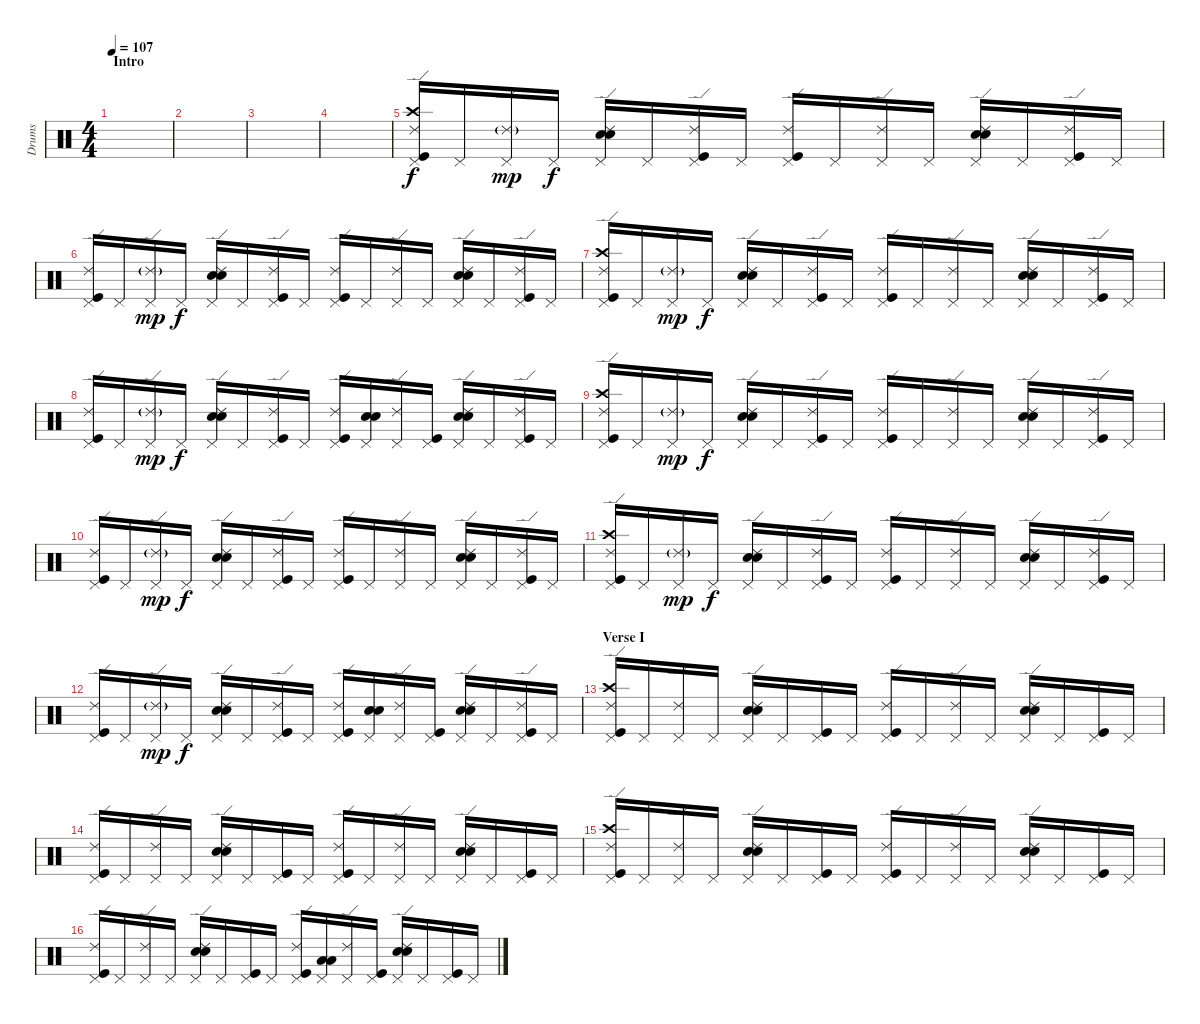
\track ("Drums" "Drums") {instrument percussion}
\staff {score}
\articulation defaults
\ts (4 4)
\section ("" "Intro")
\tempo 107
\clef neutral
\ks c
|
|
|
|
("Pedal Hi-Hat (hit)" "Crash high (hit)" "Ride (edge) 2" "Kick (hit)").16 "Pedal Hi-Hat (hit)".16 ("Pedal Hi-Hat (hit)" "Ride (edge) 2"{g}).16{dy mp} "Pedal Hi-Hat (hit)".16{dy f} ("Pedal Hi-Hat (hit)" "Ride (edge) 2" "Electric Snare (hit)" "Snare (hit) 2").16 "Pedal Hi-Hat (hit)".16 ("Pedal Hi-Hat (hit)" "Ride (edge) 2" "Kick (hit)").16 "Pedal Hi-Hat (hit)".16 ("Pedal Hi-Hat (hit)" "Ride (edge) 2" "Kick (hit)").16 "Pedal Hi-Hat (hit)".16 ("Pedal Hi-Hat (hit)" "Ride (edge) 2").16 "Pedal Hi-Hat (hit)".16 ("Pedal Hi-Hat (hit)" "Ride (edge) 2" "Electric Snare (hit)" "Snare (hit) 2").16 "Pedal Hi-Hat (hit)".16 ("Pedal Hi-Hat (hit)" "Ride (edge) 2" "Kick (hit)").16 "Pedal Hi-Hat (hit)".16 |
("Pedal Hi-Hat (hit)" "Ride (edge) 2" "Kick (hit)").16 "Pedal Hi-Hat (hit)".16 ("Pedal Hi-Hat (hit)" "Ride (edge) 2"{g}).16{dy mp} "Pedal Hi-Hat (hit)".16{dy f} ("Pedal Hi-Hat (hit)" "Ride (edge) 2" "Electric Snare (hit)" "Snare (hit) 2").16 "Pedal Hi-Hat (hit)".16 ("Pedal Hi-Hat (hit)" "Ride (edge) 2" "Kick (hit)").16 "Pedal Hi-Hat (hit)".16 ("Pedal Hi-Hat (hit)" "Ride (edge) 2" "Kick (hit)").16 "Pedal Hi-Hat (hit)".16 ("Pedal Hi-Hat (hit)" "Ride (edge) 2").16 "Pedal Hi-Hat (hit)".16 ("Pedal Hi-Hat (hit)" "Ride (edge) 2" "Electric Snare (hit)" "Snare (hit) 2").16 "Pedal Hi-Hat (hit)".16 ("Pedal Hi-Hat (hit)" "Ride (edge) 2" "Kick (hit)").16 "Pedal Hi-Hat (hit)".16 |
("Pedal Hi-Hat (hit)" "Crash high (hit)" "Ride (edge) 2" "Kick (hit)").16 "Pedal Hi-Hat (hit)".16 ("Pedal Hi-Hat (hit)" "Ride (edge) 2"{g}).16{dy mp} "Pedal Hi-Hat (hit)".16{dy f} ("Pedal Hi-Hat (hit)" "Ride (edge) 2" "Electric Snare (hit)" "Snare (hit) 2").16 "Pedal Hi-Hat (hit)".16 ("Pedal Hi-Hat (hit)" "Ride (edge) 2" "Kick (hit)").16 "Pedal Hi-Hat (hit)".16 ("Pedal Hi-Hat (hit)" "Ride (edge) 2" "Kick (hit)").16 "Pedal Hi-Hat (hit)".16 ("Pedal Hi-Hat (hit)" "Ride (edge) 2").16 "Pedal Hi-Hat (hit)".16 ("Pedal Hi-Hat (hit)" "Ride (edge) 2" "Electric Snare (hit)" "Snare (hit) 2").16 "Pedal Hi-Hat (hit)".16 ("Pedal Hi-Hat (hit)" "Ride (edge) 2" "Kick (hit)").16 "Pedal Hi-Hat (hit)".16 |
("Pedal Hi-Hat (hit)" "Ride (edge) 2" "Kick (hit)").16 "Pedal Hi-Hat (hit)".16 ("Pedal Hi-Hat (hit)" "Ride (edge) 2"{g}).16{dy mp} "Pedal Hi-Hat (hit)".16{dy f} ("Pedal Hi-Hat (hit)" "Ride (edge) 2" "Electric Snare (hit)" "Snare (hit) 2").16 "Pedal Hi-Hat (hit)".16 ("Pedal Hi-Hat (hit)" "Ride (edge) 2" "Kick (hit)").16 "Pedal Hi-Hat (hit)".16 ("Pedal Hi-Hat (hit)" "Ride (edge) 2" "Kick (hit)").16 ("Pedal Hi-Hat (hit)" "Electric Snare (hit)" "Snare (hit) 2").16 ("Pedal Hi-Hat (hit)" "Ride (edge) 2").16 ("Pedal Hi-Hat (hit)" "Kick (hit)").16 ("Pedal Hi-Hat (hit)" "Ride (edge) 2" "Electric Snare (hit)" "Snare (hit) 2").16 "Pedal Hi-Hat (hit)".16 ("Pedal Hi-Hat (hit)" "Ride (edge) 2" "Kick (hit)").16 "Pedal Hi-Hat (hit)".16 |
("Pedal Hi-Hat (hit)" "Crash high (hit)" "Ride (edge) 2" "Kick (hit)").16 "Pedal Hi-Hat (hit)".16 ("Pedal Hi-Hat (hit)" "Ride (edge) 2"{g}).16{dy mp} "Pedal Hi-Hat (hit)".16{dy f} ("Pedal Hi-Hat (hit)" "Ride (edge) 2" "Electric Snare (hit)" "Snare (hit) 2").16 "Pedal Hi-Hat (hit)".16 ("Pedal Hi-Hat (hit)" "Ride (edge) 2" "Kick (hit)").16 "Pedal Hi-Hat (hit)".16 ("Pedal Hi-Hat (hit)" "Ride (edge) 2" "Kick (hit)").16 "Pedal Hi-Hat (hit)".16 ("Pedal Hi-Hat (hit)" "Ride (edge) 2").16 "Pedal Hi-Hat (hit)".16 ("Pedal Hi-Hat (hit)" "Ride (edge) 2" "Electric Snare (hit)" "Snare (hit) 2").16 "Pedal Hi-Hat (hit)".16 ("Pedal Hi-Hat (hit)" "Ride (edge) 2" "Kick (hit)").16 "Pedal Hi-Hat (hit)".16 |
("Pedal Hi-Hat (hit)" "Ride (edge) 2" "Kick (hit)").16 "Pedal Hi-Hat (hit)".16 ("Pedal Hi-Hat (hit)" "Ride (edge) 2"{g}).16{dy mp} "Pedal Hi-Hat (hit)".16{dy f} ("Pedal Hi-Hat (hit)" "Ride (edge) 2" "Electric Snare (hit)" "Snare (hit) 2").16 "Pedal Hi-Hat (hit)".16 ("Pedal Hi-Hat (hit)" "Ride (edge) 2" "Kick (hit)").16 "Pedal Hi-Hat (hit)".16 ("Pedal Hi-Hat (hit)" "Ride (edge) 2" "Kick (hit)").16 "Pedal Hi-Hat (hit)".16 ("Pedal Hi-Hat (hit)" "Ride (edge) 2").16 "Pedal Hi-Hat (hit)".16 ("Pedal Hi-Hat (hit)" "Ride (edge) 2" "Electric Snare (hit)" "Snare (hit) 2").16 "Pedal Hi-Hat (hit)".16 ("Pedal Hi-Hat (hit)" "Ride (edge) 2" "Kick (hit)").16 "Pedal Hi-Hat (hit)".16 |
("Pedal Hi-Hat (hit)" "Crash high (hit)" "Ride (edge) 2" "Kick (hit)").16 "Pedal Hi-Hat (hit)".16 ("Pedal Hi-Hat (hit)" "Ride (edge) 2"{g}).16{dy mp} "Pedal Hi-Hat (hit)".16{dy f} ("Pedal Hi-Hat (hit)" "Ride (edge) 2" "Electric Snare (hit)" "Snare (hit) 2").16 "Pedal Hi-Hat (hit)".16 ("Pedal Hi-Hat (hit)" "Ride (edge) 2" "Kick (hit)").16 "Pedal Hi-Hat (hit)".16 ("Pedal Hi-Hat (hit)" "Ride (edge) 2" "Kick (hit)").16 "Pedal Hi-Hat (hit)".16 ("Pedal Hi-Hat (hit)" "Ride (edge) 2").16 "Pedal Hi-Hat (hit)".16 ("Pedal Hi-Hat (hit)" "Ride (edge) 2" "Electric Snare (hit)" "Snare (hit) 2").16 "Pedal Hi-Hat (hit)".16 ("Pedal Hi-Hat (hit)" "Ride (edge) 2" "Kick (hit)").16 "Pedal Hi-Hat (hit)".16 |
("Pedal Hi-Hat (hit)" "Ride (edge) 2" "Kick (hit)").16 "Pedal Hi-Hat (hit)".16 ("Pedal Hi-Hat (hit)" "Ride (edge) 2"{g}).16{dy mp} "Pedal Hi-Hat (hit)".16{dy f} ("Pedal Hi-Hat (hit)" "Ride (edge) 2" "Electric Snare (hit)" "Snare (hit) 2").16 "Pedal Hi-Hat (hit)".16 ("Pedal Hi-Hat (hit)" "Ride (edge) 2" "Kick (hit)").16 "Pedal Hi-Hat (hit)".16 ("Pedal Hi-Hat (hit)" "Ride (edge) 2" "Kick (hit)").16 ("Pedal Hi-Hat (hit)" "Electric Snare (hit)" "Snare (hit) 2").16 ("Pedal Hi-Hat (hit)" "Ride (edge) 2").16 ("Pedal Hi-Hat (hit)" "Kick (hit)").16 ("Pedal Hi-Hat (hit)" "Ride (edge) 2" "Electric Snare (hit)" "Snare (hit) 2").16 "Pedal Hi-Hat (hit)".16 ("Pedal Hi-Hat (hit)" "Ride (edge) 2" "Kick (hit)").16 "Pedal Hi-Hat (hit)".16 |
\section ("" "Verse I")
("Pedal Hi-Hat (hit)" "Crash high (hit)" "Ride (edge) 2" "Kick (hit)").16 "Pedal Hi-Hat (hit)".16 ("Pedal Hi-Hat (hit)" "Ride (edge) 2").16 "Pedal Hi-Hat (hit)".16 ("Pedal Hi-Hat (hit)" "Ride (edge) 2" "Electric Snare (hit)" "Snare (hit) 2").16 "Pedal Hi-Hat (hit)".16 ("Pedal Hi-Hat (hit)" "Kick (hit)").16 "Pedal Hi-Hat (hit)".16 ("Pedal Hi-Hat (hit)" "Ride (edge) 2" "Kick (hit)").16 "Pedal Hi-Hat (hit)".16 ("Pedal Hi-Hat (hit)" "Ride (edge) 2").16 "Pedal Hi-Hat (hit)".16 ("Pedal Hi-Hat (hit)" "Ride (edge) 2" "Electric Snare (hit)" "Snare (hit) 2").16 "Pedal Hi-Hat (hit)".16 ("Pedal Hi-Hat (hit)" "Kick (hit)").16 "Pedal Hi-Hat (hit)".16 |
("Pedal Hi-Hat (hit)" "Ride (edge) 2" "Kick (hit)").16 "Pedal Hi-Hat (hit)".16 ("Pedal Hi-Hat (hit)" "Ride (edge) 2").16 "Pedal Hi-Hat (hit)".16 ("Pedal Hi-Hat (hit)" "Ride (edge) 2" "Electric Snare (hit)" "Snare (hit) 2").16 "Pedal Hi-Hat (hit)".16 ("Pedal Hi-Hat (hit)" "Kick (hit)").16 "Pedal Hi-Hat (hit)".16 ("Pedal Hi-Hat (hit)" "Ride (edge) 2" "Kick (hit)").16 "Pedal Hi-Hat (hit)".16 ("Pedal Hi-Hat (hit)" "Ride (edge) 2").16 "Pedal Hi-Hat (hit)".16 ("Pedal Hi-Hat (hit)" "Ride (edge) 2" "Electric Snare (hit)" "Snare (hit) 2").16 "Pedal Hi-Hat (hit)".16 ("Pedal Hi-Hat (hit)" "Kick (hit)").16 "Pedal Hi-Hat (hit)".16 |
("Pedal Hi-Hat (hit)" "Crash high (hit)" "Ride (edge) 2" "Kick (hit)").16 "Pedal Hi-Hat (hit)".16 ("Pedal Hi-Hat (hit)" "Ride (edge) 2").16 "Pedal Hi-Hat (hit)".16 ("Pedal Hi-Hat (hit)" "Ride (edge) 2" "Electric Snare (hit)" "Snare (hit) 2").16 "Pedal Hi-Hat (hit)".16 ("Pedal Hi-Hat (hit)" "Kick (hit)").16 "Pedal Hi-Hat (hit)".16 ("Pedal Hi-Hat (hit)" "Ride (edge) 2" "Kick (hit)").16 "Pedal Hi-Hat (hit)".16 ("Pedal Hi-Hat (hit)" "Ride (edge) 2").16 "Pedal Hi-Hat (hit)".16 ("Pedal Hi-Hat (hit)" "Ride (edge) 2" "Electric Snare (hit)" "Snare (hit) 2").16 "Pedal Hi-Hat (hit)".16 ("Pedal Hi-Hat (hit)" "Kick (hit)").16 "Pedal Hi-Hat (hit)".16 |
("Pedal Hi-Hat (hit)" "Ride (edge) 2" "Kick (hit)").16 "Pedal Hi-Hat (hit)".16 ("Pedal Hi-Hat (hit)" "Ride (edge) 2").16 "Pedal Hi-Hat (hit)".16 ("Pedal Hi-Hat (hit)" "Ride (edge) 2" "Electric Snare (hit)" "Snare (hit) 2").16 "Pedal Hi-Hat (hit)".16 ("Pedal Hi-Hat (hit)" "Kick (hit)").16 "Pedal Hi-Hat (hit)".16 ("Pedal Hi-Hat (hit)" "Ride (edge) 2" "Kick (hit)").16 ("Pedal Hi-Hat (hit)" "Low Tom (hit)" "Low Tom (hit)").16 ("Pedal Hi-Hat (hit)" "Ride (edge) 2").16 ("Pedal Hi-Hat (hit)" "Kick (hit)").16 ("Pedal Hi-Hat (hit)" "Ride (edge) 2" "Electric Snare (hit)" "Snare (hit) 2").16 "Pedal Hi-Hat (hit)".16 ("Pedal Hi-Hat (hit)" "Kick (hit)").16 "Pedal Hi-Hat (hit)".16
